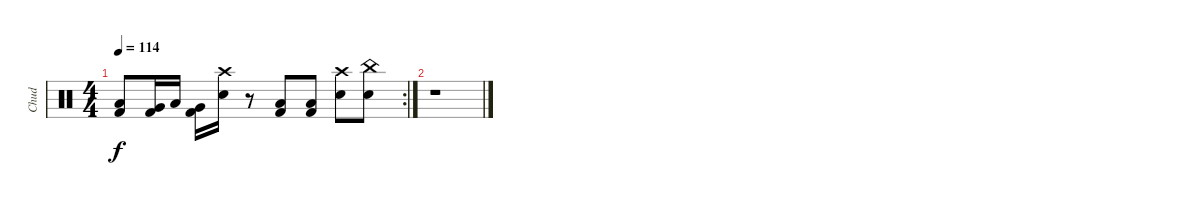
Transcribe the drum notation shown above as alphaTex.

\track ("Chud" "Chud") {instrument percussion}
\staff {score}
\articulation defaults
\rc 2
\ts (4 4)
\tempo 114
\clef neutral
\ks c
("Low Tom (hit)" "Kick (hit) 2").8{dy f} ("Very Low Tom (hit)" "Kick (hit) 2").16 "Low Tom (hit)".16 ("Very Low Tom (hit)" "Kick (hit) 2").16 ("Crash high (hit)" "Electric Snare (hit)").16 r.8 ("Low Tom (hit)" "Kick (hit) 2").8 ("Low Tom (hit)" "Kick (hit) 2").8 ("Crash high (hit)" "Electric Snare (hit)").8 ("China (hit)" "Electric Snare (hit)").8 |
r.1
